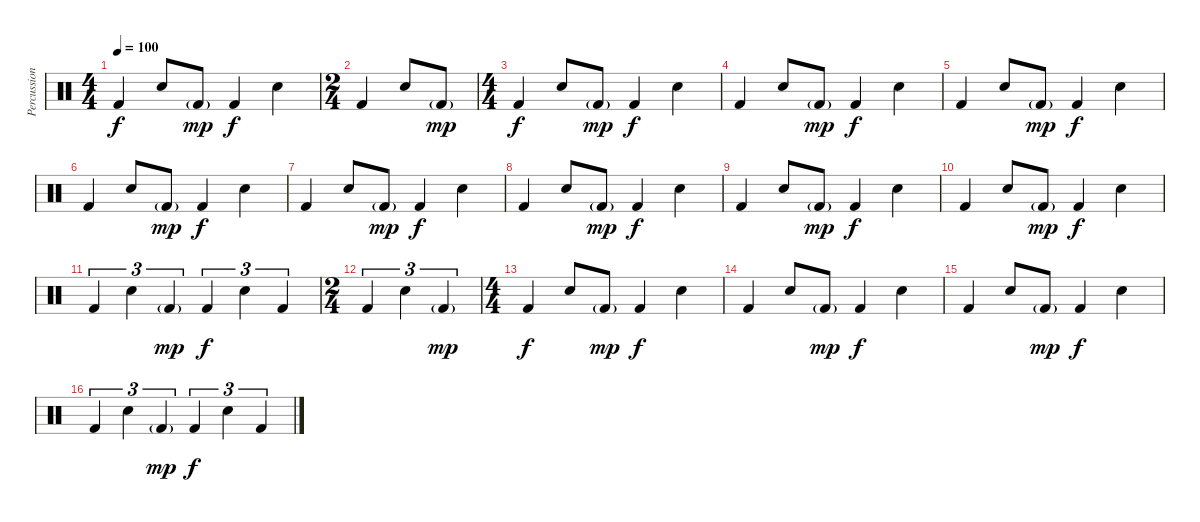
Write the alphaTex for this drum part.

\track ("Percussion" "Percussion") {instrument percussion}
\staff {score}
\articulation defaults
\ts (4 4)
\tempo 100
\clef neutral
\ks c "Kick (hit) 2".4{dy f} "Snare (hit) 2".8 "Kick (hit) 2"{g}.8{dy mp} "Kick (hit) 2".4{dy f} "Snare (hit) 2".4
|
\ts (2 4)
"Kick (hit) 2".4 "Snare (hit) 2".8 "Kick (hit) 2"{g}.8{dy mp} |
\ts (4 4)
"Kick (hit) 2".4{dy f} "Snare (hit) 2".8 "Kick (hit) 2"{g}.8{dy mp} "Kick (hit) 2".4{dy f} "Snare (hit) 2".4 |
"Kick (hit) 2".4 "Snare (hit) 2".8 "Kick (hit) 2"{g}.8{dy mp} "Kick (hit) 2".4{dy f} "Snare (hit) 2".4 |
"Kick (hit) 2".4 "Snare (hit) 2".8 "Kick (hit) 2"{g}.8{dy mp} "Kick (hit) 2".4{dy f} "Snare (hit) 2".4 |
"Kick (hit) 2".4 "Snare (hit) 2".8 "Kick (hit) 2"{g}.8{dy mp} "Kick (hit) 2".4{dy f} "Snare (hit) 2".4 |
"Kick (hit) 2".4 "Snare (hit) 2".8 "Kick (hit) 2"{g}.8{dy mp} "Kick (hit) 2".4{dy f} "Snare (hit) 2".4 |
"Kick (hit) 2".4 "Snare (hit) 2".8 "Kick (hit) 2"{g}.8{dy mp} "Kick (hit) 2".4{dy f} "Snare (hit) 2".4 |
"Kick (hit) 2".4 "Snare (hit) 2".8 "Kick (hit) 2"{g}.8{dy mp} "Kick (hit) 2".4{dy f} "Snare (hit) 2".4 |
"Kick (hit) 2".4 "Snare (hit) 2".8 "Kick (hit) 2"{g}.8{dy mp} "Kick (hit) 2".4{dy f} "Snare (hit) 2".4 |
"Kick (hit) 2".4{tu (3 2)} "Snare (hit) 2".4{tu (3 2)} "Kick (hit) 2"{g}.4{tu (3 2) dy mp} "Kick (hit) 2".4{tu (3 2) dy f} "Snare (hit) 2".4{tu (3 2)} "Kick (hit) 2".4{tu (3 2)} |
\ts (2 4)
"Kick (hit) 2".4{tu (3 2)} "Snare (hit) 2".4{tu (3 2)} "Kick (hit) 2"{g}.4{tu (3 2) dy mp} |
\ts (4 4)
"Kick (hit) 2".4{dy f} "Snare (hit) 2".8 "Kick (hit) 2"{g}.8{dy mp} "Kick (hit) 2".4{dy f} "Snare (hit) 2".4 |
"Kick (hit) 2".4 "Snare (hit) 2".8 "Kick (hit) 2"{g}.8{dy mp} "Kick (hit) 2".4{dy f} "Snare (hit) 2".4 |
"Kick (hit) 2".4 "Snare (hit) 2".8 "Kick (hit) 2"{g}.8{dy mp} "Kick (hit) 2".4{dy f} "Snare (hit) 2".4 |
"Kick (hit) 2".4{tu (3 2)} "Snare (hit) 2".4{tu (3 2)} "Kick (hit) 2"{g}.4{tu (3 2) dy mp} "Kick (hit) 2".4{tu (3 2) dy f} "Snare (hit) 2".4{tu (3 2)} "Kick (hit) 2".4{tu (3 2)}
